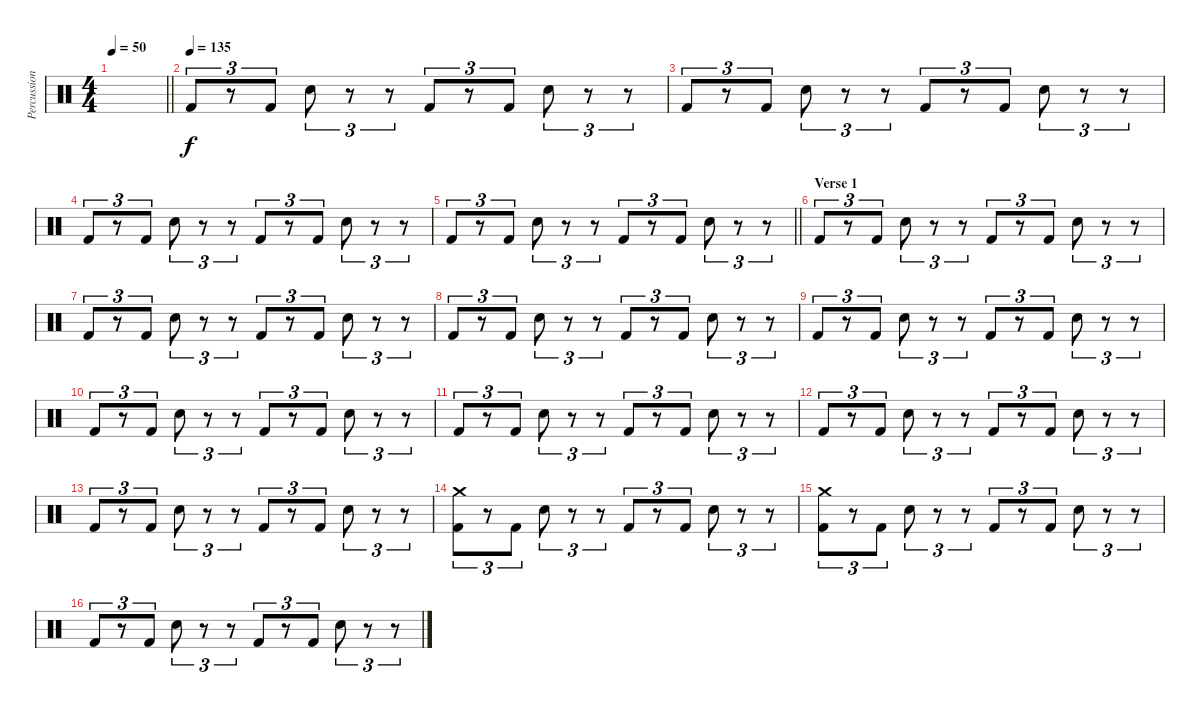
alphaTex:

\track ("Percussion" "Percussion") {instrument percussion}
\staff {score}
\articulation defaults
\ts (4 4)
\tempo 50
\clef neutral
\barLineRight lightlight
\ks c
|
\section ("" "")
\tempo (135)
"Kick (hit) 2".8{tu (3 2)} r.8{tu (3 2)} "Kick (hit) 2".8{tu (3 2)} "Electric Snare (hit)".8{tu (3 2)} r.8{tu (3 2)} r.8{tu (3 2)} "Kick (hit) 2".8{tu (3 2)} r.8{tu (3 2)} "Kick (hit) 2".8{tu (3 2)} "Electric Snare (hit)".8{tu (3 2)} r.8{tu (3 2)} r.8{tu (3 2)} |
"Kick (hit) 2".8{tu (3 2)} r.8{tu (3 2)} "Kick (hit) 2".8{tu (3 2)} "Electric Snare (hit)".8{tu (3 2)} r.8{tu (3 2)} r.8{tu (3 2)} "Kick (hit) 2".8{tu (3 2)} r.8{tu (3 2)} "Kick (hit) 2".8{tu (3 2)} "Electric Snare (hit)".8{tu (3 2)} r.8{tu (3 2)} r.8{tu (3 2)} |
"Kick (hit) 2".8{tu (3 2)} r.8{tu (3 2)} "Kick (hit) 2".8{tu (3 2)} "Electric Snare (hit)".8{tu (3 2)} r.8{tu (3 2)} r.8{tu (3 2)} "Kick (hit) 2".8{tu (3 2)} r.8{tu (3 2)} "Kick (hit) 2".8{tu (3 2)} "Electric Snare (hit)".8{tu (3 2)} r.8{tu (3 2)} r.8{tu (3 2)} |
\barLineRight lightlight "Kick (hit) 2".8{tu (3 2)}
r.8{tu (3 2)} "Kick (hit) 2".8{tu (3 2)} "Electric Snare (hit)".8{tu (3 2)} r.8{tu (3 2)} r.8{tu (3 2)} "Kick (hit) 2".8{tu (3 2)} r.8{tu (3 2)} "Kick (hit) 2".8{tu (3 2)} "Electric Snare (hit)".8{tu (3 2)} r.8{tu (3 2)} r.8{tu (3 2)} |
\section ("" "Verse 1")
"Kick (hit) 2".8{tu (3 2)} r.8{tu (3 2)} "Kick (hit) 2".8{tu (3 2)} "Electric Snare (hit)".8{tu (3 2)} r.8{tu (3 2)} r.8{tu (3 2)} "Kick (hit) 2".8{tu (3 2)} r.8{tu (3 2)} "Kick (hit) 2".8{tu (3 2)} "Electric Snare (hit)".8{tu (3 2)} r.8{tu (3 2)} r.8{tu (3 2)} |
"Kick (hit) 2".8{tu (3 2)} r.8{tu (3 2)} "Kick (hit) 2".8{tu (3 2)} "Electric Snare (hit)".8{tu (3 2)} r.8{tu (3 2)} r.8{tu (3 2)} "Kick (hit) 2".8{tu (3 2)} r.8{tu (3 2)} "Kick (hit) 2".8{tu (3 2)} "Electric Snare (hit)".8{tu (3 2)} r.8{tu (3 2)} r.8{tu (3 2)} |
"Kick (hit) 2".8{tu (3 2)} r.8{tu (3 2)} "Kick (hit) 2".8{tu (3 2)} "Electric Snare (hit)".8{tu (3 2)} r.8{tu (3 2)} r.8{tu (3 2)} "Kick (hit) 2".8{tu (3 2)} r.8{tu (3 2)} "Kick (hit) 2".8{tu (3 2)} "Electric Snare (hit)".8{tu (3 2)} r.8{tu (3 2)} r.8{tu (3 2)} |
"Kick (hit) 2".8{tu (3 2)} r.8{tu (3 2)} "Kick (hit) 2".8{tu (3 2)} "Electric Snare (hit)".8{tu (3 2)} r.8{tu (3 2)} r.8{tu (3 2)} "Kick (hit) 2".8{tu (3 2)} r.8{tu (3 2)} "Kick (hit) 2".8{tu (3 2)} "Electric Snare (hit)".8{tu (3 2)} r.8{tu (3 2)} r.8{tu (3 2)} |
"Kick (hit) 2".8{tu (3 2)} r.8{tu (3 2)} "Kick (hit) 2".8{tu (3 2)} "Electric Snare (hit)".8{tu (3 2)} r.8{tu (3 2)} r.8{tu (3 2)} "Kick (hit) 2".8{tu (3 2)} r.8{tu (3 2)} "Kick (hit) 2".8{tu (3 2)} "Electric Snare (hit)".8{tu (3 2)} r.8{tu (3 2)} r.8{tu (3 2)} |
"Kick (hit) 2".8{tu (3 2)} r.8{tu (3 2)} "Kick (hit) 2".8{tu (3 2)} "Electric Snare (hit)".8{tu (3 2)} r.8{tu (3 2)} r.8{tu (3 2)} "Kick (hit) 2".8{tu (3 2)} r.8{tu (3 2)} "Kick (hit) 2".8{tu (3 2)} "Electric Snare (hit)".8{tu (3 2)} r.8{tu (3 2)} r.8{tu (3 2)} |
"Kick (hit) 2".8{tu (3 2)} r.8{tu (3 2)} "Kick (hit) 2".8{tu (3 2)} "Electric Snare (hit)".8{tu (3 2)} r.8{tu (3 2)} r.8{tu (3 2)} "Kick (hit) 2".8{tu (3 2)} r.8{tu (3 2)} "Kick (hit) 2".8{tu (3 2)} "Electric Snare (hit)".8{tu (3 2)} r.8{tu (3 2)} r.8{tu (3 2)} |
"Kick (hit) 2".8{tu (3 2)} r.8{tu (3 2)} "Kick (hit) 2".8{tu (3 2)} "Electric Snare (hit)".8{tu (3 2)} r.8{tu (3 2)} r.8{tu (3 2)} "Kick (hit) 2".8{tu (3 2)} r.8{tu (3 2)} "Kick (hit) 2".8{tu (3 2)} "Electric Snare (hit)".8{tu (3 2)} r.8{tu (3 2)} r.8{tu (3 2)} |
("Crash medium (hit)" "Kick (hit) 2").8{tu (3 2)} r.8{tu (3 2)} "Kick (hit) 2".8{tu (3 2)} "Electric Snare (hit)".8{tu (3 2)} r.8{tu (3 2)} r.8{tu (3 2)} "Kick (hit) 2".8{tu (3 2)} r.8{tu (3 2)} "Kick (hit) 2".8{tu (3 2)} "Electric Snare (hit)".8{tu (3 2)} r.8{tu (3 2)} r.8{tu (3 2)} |
("Crash medium (hit)" "Kick (hit) 2").8{tu (3 2)} r.8{tu (3 2)} "Kick (hit) 2".8{tu (3 2)} "Electric Snare (hit)".8{tu (3 2)} r.8{tu (3 2)} r.8{tu (3 2)} "Kick (hit) 2".8{tu (3 2)} r.8{tu (3 2)} "Kick (hit) 2".8{tu (3 2)} "Electric Snare (hit)".8{tu (3 2)} r.8{tu (3 2)} r.8{tu (3 2)} |
"Kick (hit) 2".8{tu (3 2)} r.8{tu (3 2)} "Kick (hit) 2".8{tu (3 2)} "Electric Snare (hit)".8{tu (3 2)} r.8{tu (3 2)} r.8{tu (3 2)} "Kick (hit) 2".8{tu (3 2)} r.8{tu (3 2)} "Kick (hit) 2".8{tu (3 2)} "Electric Snare (hit)".8{tu (3 2)} r.8{tu (3 2)} r.8{tu (3 2)}
